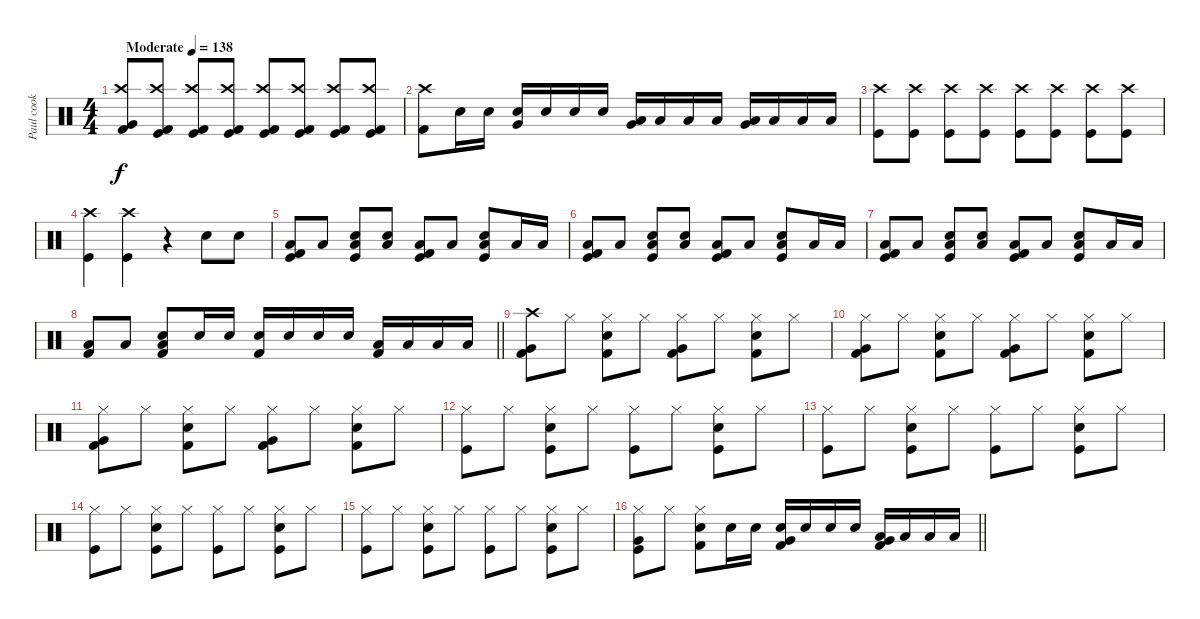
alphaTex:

\track ("Paul cook" "Paul cook") {instrument percussion}
\staff {score}
\articulation defaults
\ts (4 4)
\tempo (138 "Moderate")
\clef neutral
\ks c
("Kick (hit) 2" "Crash high (hit)" "Very Low Tom (hit)").8{dy f} ("Kick (hit) 2" "Crash high (hit)" "Kick (hit)").8 ("Kick (hit) 2" "Crash high (hit)" "Kick (hit)").8 ("Kick (hit) 2" "Crash high (hit)" "Kick (hit)").8 ("Kick (hit) 2" "Crash high (hit)" "Kick (hit)").8 ("Kick (hit) 2" "Crash high (hit)" "Kick (hit)").8 ("Kick (hit) 2" "Crash high (hit)" "Kick (hit)").8 ("Kick (hit) 2" "Crash high (hit)" "Kick (hit)").8 |
("Crash high (hit)" "Kick (hit) 2").8 "Snare (hit) 2".16 "Snare (hit) 2".16 ("Very Low Tom (hit)" "Snare (hit) 2").16 "Snare (hit) 2".16 "Snare (hit) 2".16 "Snare (hit) 2".16 ("Very Low Tom (hit)" "Low Tom (hit)").16 "Low Tom (hit)".16 "Low Tom (hit)".16 "Low Tom (hit)".16 ("Very Low Tom (hit)" "Low Tom (hit)").16 "Low Tom (hit)".16 "Low Tom (hit)".16 "Low Tom (hit)".16 |
("Crash high (hit)" "Kick (hit)").8 ("Crash high (hit)" "Kick (hit)").8 ("Crash high (hit)" "Kick (hit)").8 ("Crash high (hit)" "Kick (hit)").8 ("Crash high (hit)" "Kick (hit)").8 ("Crash high (hit)" "Kick (hit)").8 ("Crash high (hit)" "Kick (hit)").8 ("Crash high (hit)" "Kick (hit)").8 |
("Crash high (hit)" "Kick (hit)").4 ("Crash high (hit)" "Kick (hit)").4 r.4 "Snare (hit) 2".8 "Snare (hit) 2".8 |
("Kick (hit) 2" "Low Tom (hit)" "Kick (hit)").8 "Low Tom (hit)".8 ("Low Tom (hit)" "Snare (hit) 2" "Kick (hit)").8 ("Low Tom (hit)" "Snare (hit) 2").8 ("Kick (hit) 2" "Low Tom (hit)" "Kick (hit)").8 "Low Tom (hit)".8 ("Low Tom (hit)" "Snare (hit) 2" "Kick (hit)").8 "Low Tom (hit)".16 "Low Tom (hit)".16 |
("Kick (hit) 2" "Low Tom (hit)" "Kick (hit)").8 "Low Tom (hit)".8 ("Low Tom (hit)" "Snare (hit) 2" "Kick (hit)").8 ("Low Tom (hit)" "Snare (hit) 2").8 ("Kick (hit) 2" "Low Tom (hit)" "Kick (hit)").8 "Low Tom (hit)".8 ("Low Tom (hit)" "Snare (hit) 2" "Kick (hit)").8 "Low Tom (hit)".16 "Low Tom (hit)".16 |
("Kick (hit) 2" "Low Tom (hit)" "Kick (hit)").8 "Low Tom (hit)".8 ("Low Tom (hit)" "Snare (hit) 2" "Kick (hit)").8 ("Low Tom (hit)" "Snare (hit) 2").8 ("Kick (hit) 2" "Low Tom (hit)" "Kick (hit)").8 "Low Tom (hit)".8 ("Low Tom (hit)" "Snare (hit) 2" "Kick (hit)").8 "Low Tom (hit)".16 "Low Tom (hit)".16 |
\barLineRight lightlight
("Low Tom (hit)" "Kick (hit) 2").8 "Low Tom (hit)".8 ("Low Tom (hit)" "Snare (hit) 2" "Kick (hit) 2").8 "Snare (hit) 2".16 "Snare (hit) 2".16 ("Snare (hit) 2" "Kick (hit) 2").16 "Snare (hit) 2".16 "Snare (hit) 2".16 "Snare (hit) 2".16 ("Low Tom (hit)" "Kick (hit) 2").16 "Low Tom (hit)".16 "Low Tom (hit)".16 "Low Tom (hit)".16 |
("Very Low Tom (hit)" "Crash high (hit)" "Kick (hit) 2").8 "Hi-Hat (closed)".8 ("Hi-Hat (closed)" "Snare (hit) 2" "Kick (hit) 2").8 "Hi-Hat (closed)".8 ("Very Low Tom (hit)" "Hi-Hat (closed)" "Kick (hit) 2").8 "Hi-Hat (closed)".8 ("Hi-Hat (closed)" "Snare (hit) 2" "Kick (hit) 2").8 "Hi-Hat (closed)".8 |
("Very Low Tom (hit)" "Hi-Hat (closed)" "Kick (hit) 2").8 "Hi-Hat (closed)".8 ("Hi-Hat (closed)" "Snare (hit) 2" "Kick (hit) 2").8 "Hi-Hat (closed)".8 ("Very Low Tom (hit)" "Hi-Hat (closed)" "Kick (hit) 2").8 "Hi-Hat (closed)".8 ("Hi-Hat (closed)" "Snare (hit) 2" "Kick (hit) 2").8 "Hi-Hat (closed)".8 |
("Very Low Tom (hit)" "Hi-Hat (closed)" "Kick (hit) 2").8 "Hi-Hat (closed)".8 ("Hi-Hat (closed)" "Snare (hit) 2" "Kick (hit) 2").8 "Hi-Hat (closed)".8 ("Very Low Tom (hit)" "Hi-Hat (closed)" "Kick (hit) 2").8 "Hi-Hat (closed)".8 ("Hi-Hat (closed)" "Snare (hit) 2" "Kick (hit) 2").8 "Hi-Hat (closed)".8 |
("Hi-Hat (closed)" "Kick (hit)").8 "Hi-Hat (closed)".8 ("Hi-Hat (closed)" "Snare (hit) 2" "Kick (hit)").8 "Hi-Hat (closed)".8 ("Hi-Hat (closed)" "Kick (hit)").8 "Hi-Hat (closed)".8 ("Hi-Hat (closed)" "Snare (hit) 2" "Kick (hit)").8 "Hi-Hat (closed)".8 |
("Hi-Hat (closed)" "Kick (hit)").8 "Hi-Hat (closed)".8 ("Hi-Hat (closed)" "Snare (hit) 2" "Kick (hit)").8 "Hi-Hat (closed)".8 ("Hi-Hat (closed)" "Kick (hit)").8 "Hi-Hat (closed)".8 ("Hi-Hat (closed)" "Snare (hit) 2" "Kick (hit)").8 "Hi-Hat (closed)".8 |
("Hi-Hat (closed)" "Kick (hit)").8 "Hi-Hat (closed)".8 ("Hi-Hat (closed)" "Snare (hit) 2" "Kick (hit)").8 "Hi-Hat (closed)".8 ("Hi-Hat (closed)" "Kick (hit)").8 "Hi-Hat (closed)".8 ("Hi-Hat (closed)" "Snare (hit) 2" "Kick (hit)").8 "Hi-Hat (closed)".8 |
("Hi-Hat (closed)" "Kick (hit)").8 "Hi-Hat (closed)".8 ("Hi-Hat (closed)" "Snare (hit) 2" "Kick (hit)").8 "Hi-Hat (closed)".8 ("Hi-Hat (closed)" "Kick (hit)").8 "Hi-Hat (closed)".8 ("Hi-Hat (closed)" "Snare (hit) 2" "Kick (hit)").8 "Hi-Hat (closed)".8 |
\barLineRight lightlight
("Very Low Tom (hit)" "Hi-Hat (closed)" "Kick (hit)").8 "Hi-Hat (closed)".8 ("Kick (hit) 2" "Hi-Hat (closed)" "Snare (hit) 2").8 "Snare (hit) 2".16 "Snare (hit) 2".16 ("Very Low Tom (hit)" "Kick (hit) 2" "Snare (hit) 2").16 "Snare (hit) 2".16 "Snare (hit) 2".16 "Snare (hit) 2".16 ("Very Low Tom (hit)" "Kick (hit) 2" "Low Tom (hit)").16 "Low Tom (hit)".16 "Low Tom (hit)".16 "Low Tom (hit)".16
